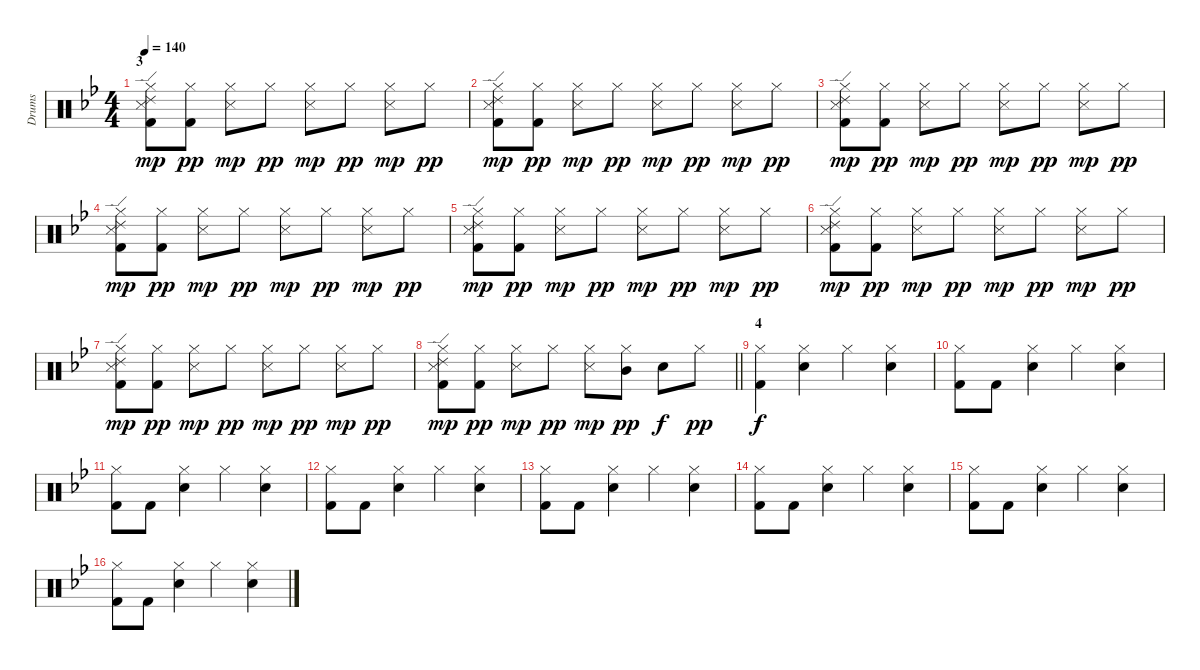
\track ("Drums" "Drums") {instrument percussion}
\staff {score}
\articulation defaults
\ts (4 4)
\section ("" "3")
\tempo 140
\clef neutral
\ks bb
("Ride (edge) 2" "Kick (hit) 2" "Snare (side stick) 3" "Hi-Hat (closed)").8{dy mp} ("Kick (hit) 2" "Hi-Hat (closed)").8{dy pp} ("Snare (side stick) 3" "Hi-Hat (closed)").8{dy mp} "Hi-Hat (closed)".8{dy pp} ("Hi-Hat (closed)" "Snare (side stick) 3").8{dy mp} "Hi-Hat (closed)".8{dy pp} ("Hi-Hat (closed)" "Snare (side stick) 3").8{dy mp} "Hi-Hat (closed)".8{dy pp} |
("Ride (edge) 2" "Kick (hit) 2" "Snare (side stick) 3" "Hi-Hat (closed)").8{dy mp} ("Kick (hit) 2" "Hi-Hat (closed)").8{dy pp} ("Snare (side stick) 3" "Hi-Hat (closed)").8{dy mp} "Hi-Hat (closed)".8{dy pp} ("Hi-Hat (closed)" "Snare (side stick) 3").8{dy mp} "Hi-Hat (closed)".8{dy pp} ("Hi-Hat (closed)" "Snare (side stick) 3").8{dy mp} "Hi-Hat (closed)".8{dy pp} |
("Ride (edge) 2" "Kick (hit) 2" "Snare (side stick) 3" "Hi-Hat (closed)").8{dy mp} ("Kick (hit) 2" "Hi-Hat (closed)").8{dy pp} ("Snare (side stick) 3" "Hi-Hat (closed)").8{dy mp} "Hi-Hat (closed)".8{dy pp} ("Hi-Hat (closed)" "Snare (side stick) 3").8{dy mp} "Hi-Hat (closed)".8{dy pp} ("Hi-Hat (closed)" "Snare (side stick) 3").8{dy mp} "Hi-Hat (closed)".8{dy pp} |
("Ride (edge) 2" "Kick (hit) 2" "Snare (side stick) 3" "Hi-Hat (closed)").8{dy mp} ("Kick (hit) 2" "Hi-Hat (closed)").8{dy pp} ("Snare (side stick) 3" "Hi-Hat (closed)").8{dy mp} "Hi-Hat (closed)".8{dy pp} ("Hi-Hat (closed)" "Snare (side stick) 3").8{dy mp} "Hi-Hat (closed)".8{dy pp} ("Hi-Hat (closed)" "Snare (side stick) 3").8{dy mp} "Hi-Hat (closed)".8{dy pp} |
("Ride (edge) 2" "Kick (hit) 2" "Snare (side stick) 3" "Hi-Hat (closed)").8{dy mp} ("Kick (hit) 2" "Hi-Hat (closed)").8{dy pp} ("Snare (side stick) 3" "Hi-Hat (closed)").8{dy mp} "Hi-Hat (closed)".8{dy pp} ("Hi-Hat (closed)" "Snare (side stick) 3").8{dy mp} "Hi-Hat (closed)".8{dy pp} ("Hi-Hat (closed)" "Snare (side stick) 3").8{dy mp} "Hi-Hat (closed)".8{dy pp} |
("Ride (edge) 2" "Kick (hit) 2" "Snare (side stick) 3" "Hi-Hat (closed)").8{dy mp} ("Kick (hit) 2" "Hi-Hat (closed)").8{dy pp} ("Snare (side stick) 3" "Hi-Hat (closed)").8{dy mp} "Hi-Hat (closed)".8{dy pp} ("Hi-Hat (closed)" "Snare (side stick) 3").8{dy mp} "Hi-Hat (closed)".8{dy pp} ("Hi-Hat (closed)" "Snare (side stick) 3").8{dy mp} "Hi-Hat (closed)".8{dy pp} |
("Ride (edge) 2" "Kick (hit) 2" "Snare (side stick) 3" "Hi-Hat (closed)").8{dy mp} ("Kick (hit) 2" "Hi-Hat (closed)").8{dy pp} ("Snare (side stick) 3" "Hi-Hat (closed)").8{dy mp} "Hi-Hat (closed)".8{dy pp} ("Hi-Hat (closed)" "Snare (side stick) 3").8{dy mp} "Hi-Hat (closed)".8{dy pp} ("Hi-Hat (closed)" "Snare (side stick) 3").8{dy mp} "Hi-Hat (closed)".8{dy pp} |
\barLineRight lightlight
("Ride (edge) 2" "Kick (hit) 2" "Snare (side stick) 3" "Hi-Hat (closed)").8{dy mp} ("Kick (hit) 2" "Hi-Hat (closed)").8{dy pp} ("Snare (side stick) 3" "Hi-Hat (closed)").8{dy mp} "Hi-Hat (closed)".8{dy pp} ("Hi-Hat (closed)" "Snare (side stick) 3").8{dy mp} ("Mid Tom (hit)" "Hi-Hat (closed)").8{dy pp} "Electric Snare (hit)".8{dy f} "Hi-Hat (closed)".8{dy pp} |
\section ("" "4")
("Kick (hit) 2" "Hi-Hat (closed)").4{dy f} ("Electric Snare (hit)" "Hi-Hat (closed)").4 "Hi-Hat (closed)".4 ("Electric Snare (hit)" "Hi-Hat (closed)").4 |
("Kick (hit) 2" "Hi-Hat (closed)").8 "Kick (hit) 2".8 ("Electric Snare (hit)" "Hi-Hat (closed)").4 "Hi-Hat (closed)".4 ("Electric Snare (hit)" "Hi-Hat (closed)").4 |
("Kick (hit) 2" "Hi-Hat (closed)").8 "Kick (hit) 2".8 ("Electric Snare (hit)" "Hi-Hat (closed)").4 "Hi-Hat (closed)".4 ("Electric Snare (hit)" "Hi-Hat (closed)").4 |
("Kick (hit) 2" "Hi-Hat (closed)").8 "Kick (hit) 2".8 ("Electric Snare (hit)" "Hi-Hat (closed)").4 "Hi-Hat (closed)".4 ("Electric Snare (hit)" "Hi-Hat (closed)").4 |
("Kick (hit) 2" "Hi-Hat (closed)").8 "Kick (hit) 2".8 ("Electric Snare (hit)" "Hi-Hat (closed)").4 "Hi-Hat (closed)".4 ("Electric Snare (hit)" "Hi-Hat (closed)").4 |
("Kick (hit) 2" "Hi-Hat (closed)").8 "Kick (hit) 2".8 ("Electric Snare (hit)" "Hi-Hat (closed)").4 "Hi-Hat (closed)".4 ("Electric Snare (hit)" "Hi-Hat (closed)").4 |
("Kick (hit) 2" "Hi-Hat (closed)").8 "Kick (hit) 2".8 ("Electric Snare (hit)" "Hi-Hat (closed)").4 "Hi-Hat (closed)".4 ("Electric Snare (hit)" "Hi-Hat (closed)").4 |
("Kick (hit) 2" "Hi-Hat (closed)").8 "Kick (hit) 2".8 ("Electric Snare (hit)" "Hi-Hat (closed)").4 "Hi-Hat (closed)".4 ("Electric Snare (hit)" "Hi-Hat (closed)").4
